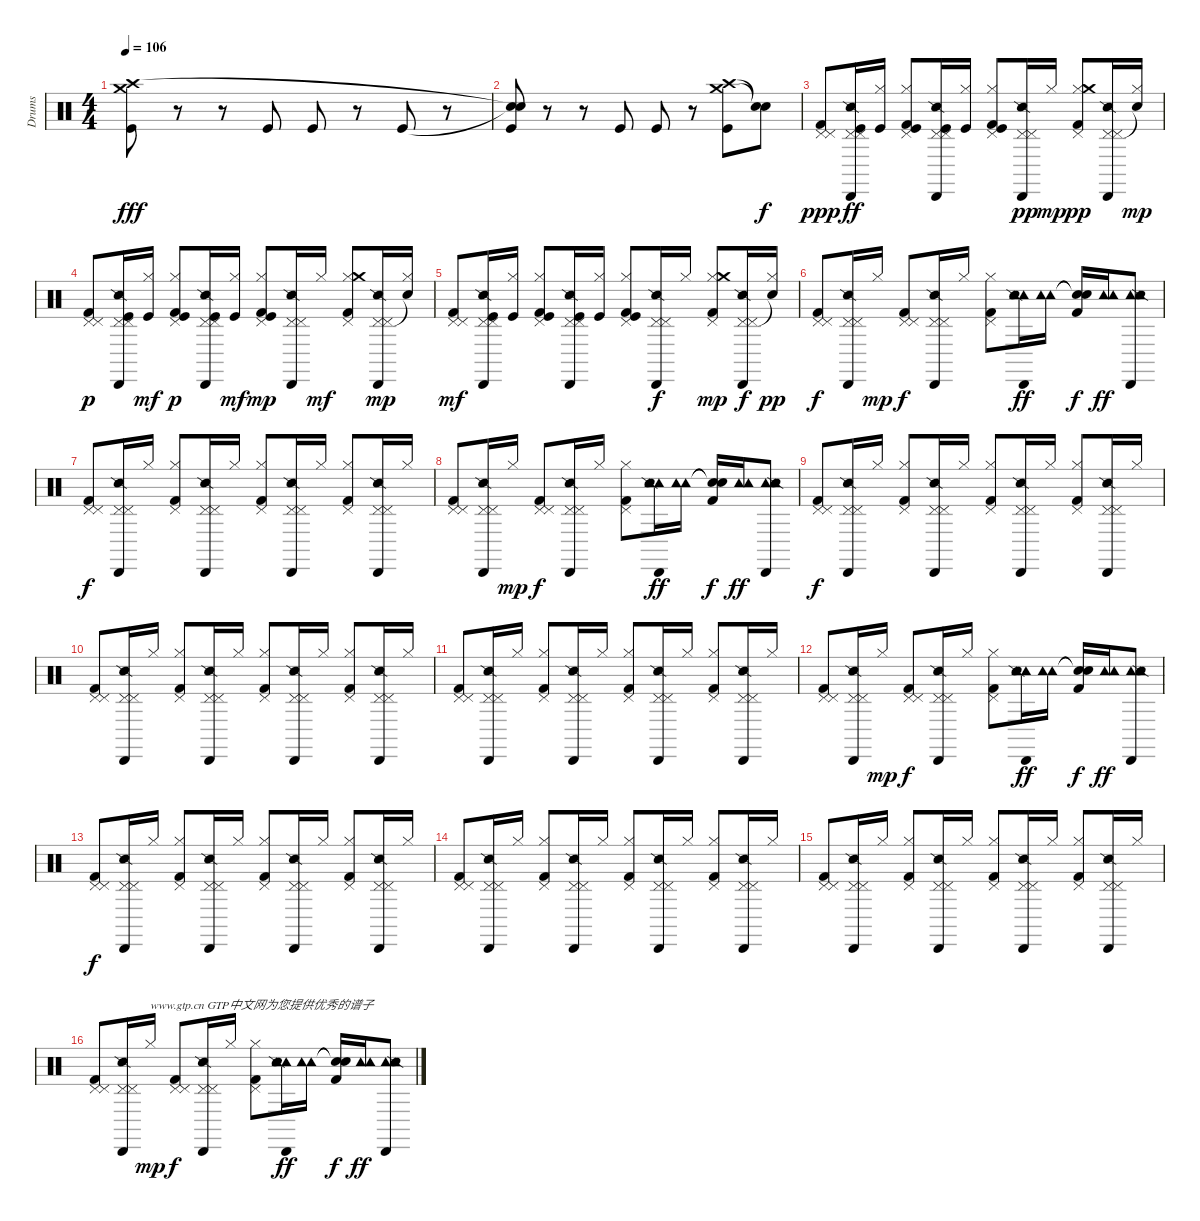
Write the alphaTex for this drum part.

\track ("Drums" "Drums") {instrument percussion}
\staff {score}
\articulation defaults
\ts (4 4)
\tempo 106
\clef neutral
\ks c
("Crash medium (hit)" "Crash high (hit)" "Kick (hit)").8{dy fff} r.8 r.8 "Kick (hit)".8 "Kick (hit)".8 r.8 "Kick (hit)".8 r.8 |
("Snare (hit)"{t} "Snare (hit)"{t} "Kick (hit)").8 r.8 r.8 "Kick (hit)".8 "Kick (hit)".8 r.8 ("Crash medium (hit)" "Crash high (hit)" "Kick (hit)").8 ("Snare (hit)"{t} "Snare (hit)"{t}).8{dy f} |
("Pedal Hi-Hat (hit)" "Pedal Hi-Hat (hit)" "Kick (hit) 2").8{dy ppp} ("Pedal Hi-Hat (hit)" "Pedal Hi-Hat (hit)" "Snare (side stick) 2" "Cabasa (hit)" "Kick (hit)").16{dy ff} ("Hi-Hat (closed)" "Kick (hit)").16 ("Pedal Hi-Hat (hit)" "Hi-Hat (closed)" "Kick (hit) 2" "Kick (hit)").8 ("Pedal Hi-Hat (hit)" "Pedal Hi-Hat (hit)" "Snare (side stick) 2" "Cabasa (hit)" "Kick (hit)").16 ("Hi-Hat (closed)" "Kick (hit)").16 ("Pedal Hi-Hat (hit)" "Hi-Hat (closed)" "Kick (hit) 2" "Kick (hit)").8 ("Pedal Hi-Hat (hit)" "Pedal Hi-Hat (hit)" "Snare (side stick) 2" "Cabasa (hit)").16{dy pp} "Hi-Hat (closed)".16{dy mp} ("Pedal Hi-Hat (hit)" "Hi-Hat (closed)" "Kick (hit) 2" "Crash medium (hit)").8{dy pp} ("Pedal Hi-Hat (hit)" "Pedal Hi-Hat (hit)" "Snare (side stick) 2" "Cabasa (hit)").16 ("Hi-Hat (closed)" "Snare (hit)"{t}).16{dy mp} |
("Pedal Hi-Hat (hit)" "Pedal Hi-Hat (hit)" "Kick (hit) 2").8{dy p} ("Pedal Hi-Hat (hit)" "Pedal Hi-Hat (hit)" "Snare (side stick) 2" "Cabasa (hit)" "Kick (hit)").16 ("Hi-Hat (closed)" "Kick (hit)").16{dy mf} ("Pedal Hi-Hat (hit)" "Hi-Hat (closed)" "Kick (hit) 2" "Kick (hit)").8{dy p} ("Pedal Hi-Hat (hit)" "Pedal Hi-Hat (hit)" "Snare (side stick) 2" "Cabasa (hit)" "Kick (hit)").16 ("Hi-Hat (closed)" "Kick (hit)").16{dy mf} ("Pedal Hi-Hat (hit)" "Hi-Hat (closed)" "Kick (hit) 2" "Kick (hit)").8{dy mp} ("Pedal Hi-Hat (hit)" "Pedal Hi-Hat (hit)" "Snare (side stick) 2" "Cabasa (hit)").16 "Hi-Hat (closed)".16{dy mf} ("Pedal Hi-Hat (hit)" "Hi-Hat (closed)" "Kick (hit) 2" "Crash medium (hit)").8 ("Pedal Hi-Hat (hit)" "Pedal Hi-Hat (hit)" "Snare (side stick) 2" "Cabasa (hit)").16{dy mp} ("Hi-Hat (closed)" "Snare (hit)"{t}).16 |
("Pedal Hi-Hat (hit)" "Pedal Hi-Hat (hit)" "Kick (hit) 2").8{dy mf} ("Pedal Hi-Hat (hit)" "Pedal Hi-Hat (hit)" "Snare (side stick) 2" "Cabasa (hit)" "Kick (hit)").16 ("Hi-Hat (closed)" "Kick (hit)").16 ("Pedal Hi-Hat (hit)" "Hi-Hat (closed)" "Kick (hit) 2" "Kick (hit)").8 ("Pedal Hi-Hat (hit)" "Pedal Hi-Hat (hit)" "Snare (side stick) 2" "Cabasa (hit)" "Kick (hit)").16 ("Hi-Hat (closed)" "Kick (hit)").16 ("Pedal Hi-Hat (hit)" "Hi-Hat (closed)" "Kick (hit) 2" "Kick (hit)").8 ("Pedal Hi-Hat (hit)" "Pedal Hi-Hat (hit)" "Snare (side stick) 2" "Cabasa (hit)").16{dy f} "Hi-Hat (closed)".16 ("Pedal Hi-Hat (hit)" "Hi-Hat (closed)" "Kick (hit) 2" "Crash medium (hit)").8{dy mp} ("Pedal Hi-Hat (hit)" "Pedal Hi-Hat (hit)" "Snare (side stick) 2" "Cabasa (hit)").16{dy f} ("Hi-Hat (closed)" "Snare (hit)"{t}).16{dy pp} |
("Pedal Hi-Hat (hit)" "Pedal Hi-Hat (hit)" "Kick (hit) 2").8{dy f} ("Pedal Hi-Hat (hit)" "Pedal Hi-Hat (hit)" "Snare (side stick) 2" "Cabasa (hit)").16 "Hi-Hat (closed)".16{dy mp} ("Pedal Hi-Hat (hit)" "Pedal Hi-Hat (hit)" "Kick (hit) 2").8{dy f} ("Pedal Hi-Hat (hit)" "Pedal Hi-Hat (hit)" "Snare (side stick) 2" "Cabasa (hit)").16 "Hi-Hat (closed)".16 ("Pedal Hi-Hat (hit)" "Hi-Hat (closed)" "Kick (hit) 2").8 ("Tambourine (hit)" "Tambourine (hit)" "Snare (side stick) 2" "Cabasa (hit)").16{dy ff} ("Tambourine (hit)" "Tambourine (hit)").16 ("Snare (hit)"{t} "Snare (hit)"{t} "Kick (hit) 2").16{dy f} ("Tambourine (hit)" "Tambourine (hit)").16{dy ff} ("Tambourine (hit)" "Tambourine (hit)" "Snare (side stick) 2" "Cabasa (hit)").8 |
("Pedal Hi-Hat (hit)" "Pedal Hi-Hat (hit)" "Kick (hit) 2").8{dy f} ("Pedal Hi-Hat (hit)" "Pedal Hi-Hat (hit)" "Snare (side stick) 2" "Cabasa (hit)").16 "Hi-Hat (closed)".16 ("Pedal Hi-Hat (hit)" "Hi-Hat (closed)" "Kick (hit) 2").8 ("Pedal Hi-Hat (hit)" "Pedal Hi-Hat (hit)" "Snare (side stick) 2" "Cabasa (hit)").16 "Hi-Hat (closed)".16 ("Pedal Hi-Hat (hit)" "Hi-Hat (closed)" "Kick (hit) 2").8 ("Pedal Hi-Hat (hit)" "Pedal Hi-Hat (hit)" "Snare (side stick) 2" "Cabasa (hit)").16 "Hi-Hat (closed)".16 ("Pedal Hi-Hat (hit)" "Hi-Hat (closed)" "Kick (hit) 2").8 ("Pedal Hi-Hat (hit)" "Pedal Hi-Hat (hit)" "Snare (side stick) 2" "Cabasa (hit)").16 "Hi-Hat (closed)".16 |
("Pedal Hi-Hat (hit)" "Pedal Hi-Hat (hit)" "Kick (hit) 2").8 ("Pedal Hi-Hat (hit)" "Pedal Hi-Hat (hit)" "Snare (side stick) 2" "Cabasa (hit)").16 "Hi-Hat (closed)".16{dy mp} ("Pedal Hi-Hat (hit)" "Pedal Hi-Hat (hit)" "Kick (hit) 2").8{dy f} ("Pedal Hi-Hat (hit)" "Pedal Hi-Hat (hit)" "Snare (side stick) 2" "Cabasa (hit)").16 "Hi-Hat (closed)".16 ("Pedal Hi-Hat (hit)" "Hi-Hat (closed)" "Kick (hit) 2").8 ("Tambourine (hit)" "Tambourine (hit)" "Snare (side stick) 2" "Cabasa (hit)").16{dy ff} ("Tambourine (hit)" "Tambourine (hit)").16 ("Snare (hit)"{t} "Snare (hit)"{t} "Kick (hit) 2").16{dy f} ("Tambourine (hit)" "Tambourine (hit)").16{dy ff} ("Tambourine (hit)" "Tambourine (hit)" "Snare (side stick) 2" "Cabasa (hit)").8 |
("Pedal Hi-Hat (hit)" "Pedal Hi-Hat (hit)" "Kick (hit) 2").8{dy f} ("Pedal Hi-Hat (hit)" "Pedal Hi-Hat (hit)" "Snare (side stick) 2" "Cabasa (hit)").16 "Hi-Hat (closed)".16 ("Pedal Hi-Hat (hit)" "Hi-Hat (closed)" "Kick (hit) 2").8 ("Pedal Hi-Hat (hit)" "Pedal Hi-Hat (hit)" "Snare (side stick) 2" "Cabasa (hit)").16 "Hi-Hat (closed)".16 ("Pedal Hi-Hat (hit)" "Hi-Hat (closed)" "Kick (hit) 2").8 ("Pedal Hi-Hat (hit)" "Pedal Hi-Hat (hit)" "Snare (side stick) 2" "Cabasa (hit)").16 "Hi-Hat (closed)".16 ("Pedal Hi-Hat (hit)" "Hi-Hat (closed)" "Kick (hit) 2").8 ("Pedal Hi-Hat (hit)" "Pedal Hi-Hat (hit)" "Snare (side stick) 2" "Cabasa (hit)").16 "Hi-Hat (closed)".16 |
("Pedal Hi-Hat (hit)" "Pedal Hi-Hat (hit)" "Kick (hit) 2").8 ("Pedal Hi-Hat (hit)" "Pedal Hi-Hat (hit)" "Snare (side stick) 2" "Cabasa (hit)").16 "Hi-Hat (closed)".16 ("Pedal Hi-Hat (hit)" "Hi-Hat (closed)" "Kick (hit) 2").8 ("Pedal Hi-Hat (hit)" "Pedal Hi-Hat (hit)" "Snare (side stick) 2" "Cabasa (hit)").16 "Hi-Hat (closed)".16 ("Pedal Hi-Hat (hit)" "Hi-Hat (closed)" "Kick (hit) 2").8 ("Pedal Hi-Hat (hit)" "Pedal Hi-Hat (hit)" "Snare (side stick) 2" "Cabasa (hit)").16 "Hi-Hat (closed)".16 ("Pedal Hi-Hat (hit)" "Hi-Hat (closed)" "Kick (hit) 2").8 ("Pedal Hi-Hat (hit)" "Pedal Hi-Hat (hit)" "Snare (side stick) 2" "Cabasa (hit)").16 "Hi-Hat (closed)".16 |
("Pedal Hi-Hat (hit)" "Pedal Hi-Hat (hit)" "Kick (hit) 2").8 ("Pedal Hi-Hat (hit)" "Pedal Hi-Hat (hit)" "Snare (side stick) 2" "Cabasa (hit)").16 "Hi-Hat (closed)".16 ("Pedal Hi-Hat (hit)" "Hi-Hat (closed)" "Kick (hit) 2").8 ("Pedal Hi-Hat (hit)" "Pedal Hi-Hat (hit)" "Snare (side stick) 2" "Cabasa (hit)").16 "Hi-Hat (closed)".16 ("Pedal Hi-Hat (hit)" "Hi-Hat (closed)" "Kick (hit) 2").8 ("Pedal Hi-Hat (hit)" "Pedal Hi-Hat (hit)" "Snare (side stick) 2" "Cabasa (hit)").16 "Hi-Hat (closed)".16 ("Pedal Hi-Hat (hit)" "Hi-Hat (closed)" "Kick (hit) 2").8 ("Pedal Hi-Hat (hit)" "Pedal Hi-Hat (hit)" "Snare (side stick) 2" "Cabasa (hit)").16 "Hi-Hat (closed)".16 |
("Pedal Hi-Hat (hit)" "Pedal Hi-Hat (hit)" "Kick (hit) 2").8 ("Pedal Hi-Hat (hit)" "Pedal Hi-Hat (hit)" "Snare (side stick) 2" "Cabasa (hit)").16 "Hi-Hat (closed)".16{dy mp} ("Pedal Hi-Hat (hit)" "Pedal Hi-Hat (hit)" "Kick (hit) 2").8{dy f} ("Pedal Hi-Hat (hit)" "Pedal Hi-Hat (hit)" "Snare (side stick) 2" "Cabasa (hit)").16 "Hi-Hat (closed)".16 ("Pedal Hi-Hat (hit)" "Hi-Hat (closed)" "Kick (hit) 2").8 ("Tambourine (hit)" "Tambourine (hit)" "Snare (side stick) 2" "Cabasa (hit)").16{dy ff} ("Tambourine (hit)" "Tambourine (hit)").16 ("Snare (hit)"{t} "Snare (hit)"{t} "Kick (hit) 2").16{dy f} ("Tambourine (hit)" "Tambourine (hit)").16{dy ff} ("Tambourine (hit)" "Tambourine (hit)" "Snare (side stick) 2" "Cabasa (hit)").8 |
("Pedal Hi-Hat (hit)" "Pedal Hi-Hat (hit)" "Kick (hit) 2").8{dy f} ("Pedal Hi-Hat (hit)" "Pedal Hi-Hat (hit)" "Snare (side stick) 2" "Cabasa (hit)").16 "Hi-Hat (closed)".16 ("Pedal Hi-Hat (hit)" "Hi-Hat (closed)" "Kick (hit) 2").8 ("Pedal Hi-Hat (hit)" "Pedal Hi-Hat (hit)" "Snare (side stick) 2" "Cabasa (hit)").16 "Hi-Hat (closed)".16 ("Pedal Hi-Hat (hit)" "Hi-Hat (closed)" "Kick (hit) 2").8 ("Pedal Hi-Hat (hit)" "Pedal Hi-Hat (hit)" "Snare (side stick) 2" "Cabasa (hit)").16 "Hi-Hat (closed)".16 ("Pedal Hi-Hat (hit)" "Hi-Hat (closed)" "Kick (hit) 2").8 ("Pedal Hi-Hat (hit)" "Pedal Hi-Hat (hit)" "Snare (side stick) 2" "Cabasa (hit)").16 "Hi-Hat (closed)".16 |
("Pedal Hi-Hat (hit)" "Pedal Hi-Hat (hit)" "Kick (hit) 2").8 ("Pedal Hi-Hat (hit)" "Pedal Hi-Hat (hit)" "Snare (side stick) 2" "Cabasa (hit)").16 "Hi-Hat (closed)".16 ("Pedal Hi-Hat (hit)" "Hi-Hat (closed)" "Kick (hit) 2").8 ("Pedal Hi-Hat (hit)" "Pedal Hi-Hat (hit)" "Snare (side stick) 2" "Cabasa (hit)").16 "Hi-Hat (closed)".16 ("Pedal Hi-Hat (hit)" "Hi-Hat (closed)" "Kick (hit) 2").8 ("Pedal Hi-Hat (hit)" "Pedal Hi-Hat (hit)" "Snare (side stick) 2" "Cabasa (hit)").16 "Hi-Hat (closed)".16 ("Pedal Hi-Hat (hit)" "Hi-Hat (closed)" "Kick (hit) 2").8 ("Pedal Hi-Hat (hit)" "Pedal Hi-Hat (hit)" "Snare (side stick) 2" "Cabasa (hit)").16 "Hi-Hat (closed)".16 |
("Pedal Hi-Hat (hit)" "Pedal Hi-Hat (hit)" "Kick (hit) 2").8 ("Pedal Hi-Hat (hit)" "Pedal Hi-Hat (hit)" "Snare (side stick) 2" "Cabasa (hit)").16 "Hi-Hat (closed)".16 ("Pedal Hi-Hat (hit)" "Hi-Hat (closed)" "Kick (hit) 2").8 ("Pedal Hi-Hat (hit)" "Pedal Hi-Hat (hit)" "Snare (side stick) 2" "Cabasa (hit)").16 "Hi-Hat (closed)".16 ("Pedal Hi-Hat (hit)" "Hi-Hat (closed)" "Kick (hit) 2").8 ("Pedal Hi-Hat (hit)" "Pedal Hi-Hat (hit)" "Snare (side stick) 2" "Cabasa (hit)").16 "Hi-Hat (closed)".16 ("Pedal Hi-Hat (hit)" "Hi-Hat (closed)" "Kick (hit) 2").8 ("Pedal Hi-Hat (hit)" "Pedal Hi-Hat (hit)" "Snare (side stick) 2" "Cabasa (hit)").16 "Hi-Hat (closed)".16 |
("Pedal Hi-Hat (hit)" "Pedal Hi-Hat (hit)" "Kick (hit) 2").8 ("Pedal Hi-Hat (hit)" "Pedal Hi-Hat (hit)" "Snare (side stick) 2" "Cabasa (hit)").16 "Hi-Hat (closed)".16{txt "www.gtp.cn GTP中文网为您提供优秀的谱子" dy mp} ("Pedal Hi-Hat (hit)" "Pedal Hi-Hat (hit)" "Kick (hit) 2").8{dy f} ("Pedal Hi-Hat (hit)" "Pedal Hi-Hat (hit)" "Snare (side stick) 2" "Cabasa (hit)").16 "Hi-Hat (closed)".16 ("Pedal Hi-Hat (hit)" "Hi-Hat (closed)" "Kick (hit) 2").8 ("Tambourine (hit)" "Tambourine (hit)" "Snare (side stick) 2" "Cabasa (hit)").16{dy ff} ("Tambourine (hit)" "Tambourine (hit)").16 ("Snare (hit)"{t} "Snare (hit)"{t} "Kick (hit) 2").16{dy f} ("Tambourine (hit)" "Tambourine (hit)").16{dy ff} ("Tambourine (hit)" "Tambourine (hit)" "Snare (side stick) 2" "Cabasa (hit)").8
